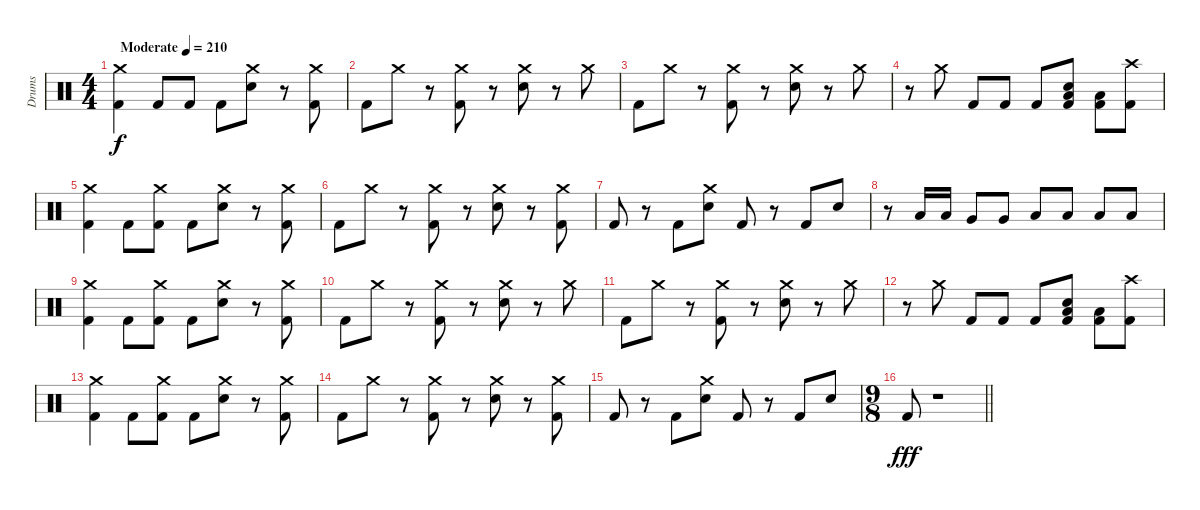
\track ("Drums" "Drums") {instrument percussion}
\staff {score}
\articulation defaults
\ts (4 4)
\tempo (210 "Moderate")
\clef neutral
\ks c
("Crash medium (hit)" "Kick (hit) 2").4{dy f} "Kick (hit) 2".8 "Kick (hit) 2".8 "Kick (hit) 2".8 ("Crash medium (hit)" "Electric Snare (hit)").8 r.8 ("Crash medium (hit)" "Kick (hit) 2").8 |
"Kick (hit) 2".8 "Crash medium (hit)".8 r.8 ("Crash medium (hit)" "Kick (hit) 2").8 r.8 ("Crash medium (hit)" "Electric Snare (hit)").8 r.8 "Crash medium (hit)".8 |
"Kick (hit) 2".8 "Crash medium (hit)".8 r.8 ("Crash medium (hit)" "Kick (hit) 2").8 r.8 ("Crash medium (hit)" "Electric Snare (hit)").8 r.8 "Crash medium (hit)".8 |
r.8 "Crash medium (hit)".8 "Kick (hit) 2".8 "Kick (hit) 2".8 "Kick (hit) 2".8 ("Electric Snare (hit)" "Low Floor Tom (hit)" "Kick (hit) 2").8 ("Low Floor Tom (hit)" "Kick (hit) 2").8 ("Crash high (hit)" "Kick (hit) 2").8 |
("Crash medium (hit)" "Kick (hit) 2").4 "Kick (hit) 2".8 ("Crash medium (hit)" "Kick (hit) 2").8 "Kick (hit) 2".8 ("Crash medium (hit)" "Electric Snare (hit)").8 r.8 ("Crash medium (hit)" "Kick (hit) 2").8 |
"Kick (hit) 2".8 "Crash medium (hit)".8 r.8 ("Crash medium (hit)" "Kick (hit) 2").8 r.8 ("Crash medium (hit)" "Electric Snare (hit)").8 r.8 ("Crash medium (hit)" "Kick (hit) 2").8 |
"Kick (hit) 2".8 r.8 "Kick (hit) 2".8 ("Crash medium (hit)" "Electric Snare (hit)").8 "Kick (hit) 2".8 r.8 "Kick (hit) 2".8 "Electric Snare (hit)".8 |
r.8 "Low Tom (hit)".16 "Low Tom (hit)".16 "Very Low Tom (hit)".8 "Very Low Tom (hit)".8 "Low Floor Tom (hit)".8 "Low Floor Tom (hit)".8 "Low Floor Tom (hit)".8 "Low Floor Tom (hit)".8 |
("Crash medium (hit)" "Kick (hit) 2").4 "Kick (hit) 2".8 ("Crash medium (hit)" "Kick (hit) 2").8 "Kick (hit) 2".8 ("Crash medium (hit)" "Electric Snare (hit)").8 r.8 ("Crash medium (hit)" "Kick (hit) 2").8 |
"Kick (hit) 2".8 "Crash medium (hit)".8 r.8 ("Crash medium (hit)" "Kick (hit) 2").8 r.8 ("Crash medium (hit)" "Electric Snare (hit)").8 r.8 "Crash medium (hit)".8 |
"Kick (hit) 2".8 "Crash medium (hit)".8 r.8 ("Crash medium (hit)" "Kick (hit) 2").8 r.8 ("Crash medium (hit)" "Electric Snare (hit)").8 r.8 "Crash medium (hit)".8 |
r.8 "Crash medium (hit)".8 "Kick (hit) 2".8 "Kick (hit) 2".8 "Kick (hit) 2".8 ("Electric Snare (hit)" "Low Floor Tom (hit)" "Kick (hit) 2").8 ("Low Floor Tom (hit)" "Kick (hit) 2").8 ("Crash high (hit)" "Kick (hit) 2").8 |
("Crash medium (hit)" "Kick (hit) 2").4 "Kick (hit) 2".8 ("Crash medium (hit)" "Kick (hit) 2").8 "Kick (hit) 2".8 ("Crash medium (hit)" "Electric Snare (hit)").8 r.8 ("Crash medium (hit)" "Kick (hit) 2").8 |
"Kick (hit) 2".8 "Crash medium (hit)".8 r.8 ("Crash medium (hit)" "Kick (hit) 2").8 r.8 ("Crash medium (hit)" "Electric Snare (hit)").8 r.8 ("Crash medium (hit)" "Kick (hit) 2").8 |
"Kick (hit) 2".8 r.8 "Kick (hit) 2".8 ("Crash medium (hit)" "Electric Snare (hit)").8 "Kick (hit) 2".8 r.8 "Kick (hit) 2".8 "Electric Snare (hit)".8 |
\ts (9 8)
\barLineRight lightlight "Kick (hit) 2".8{dy fff}
r.1
